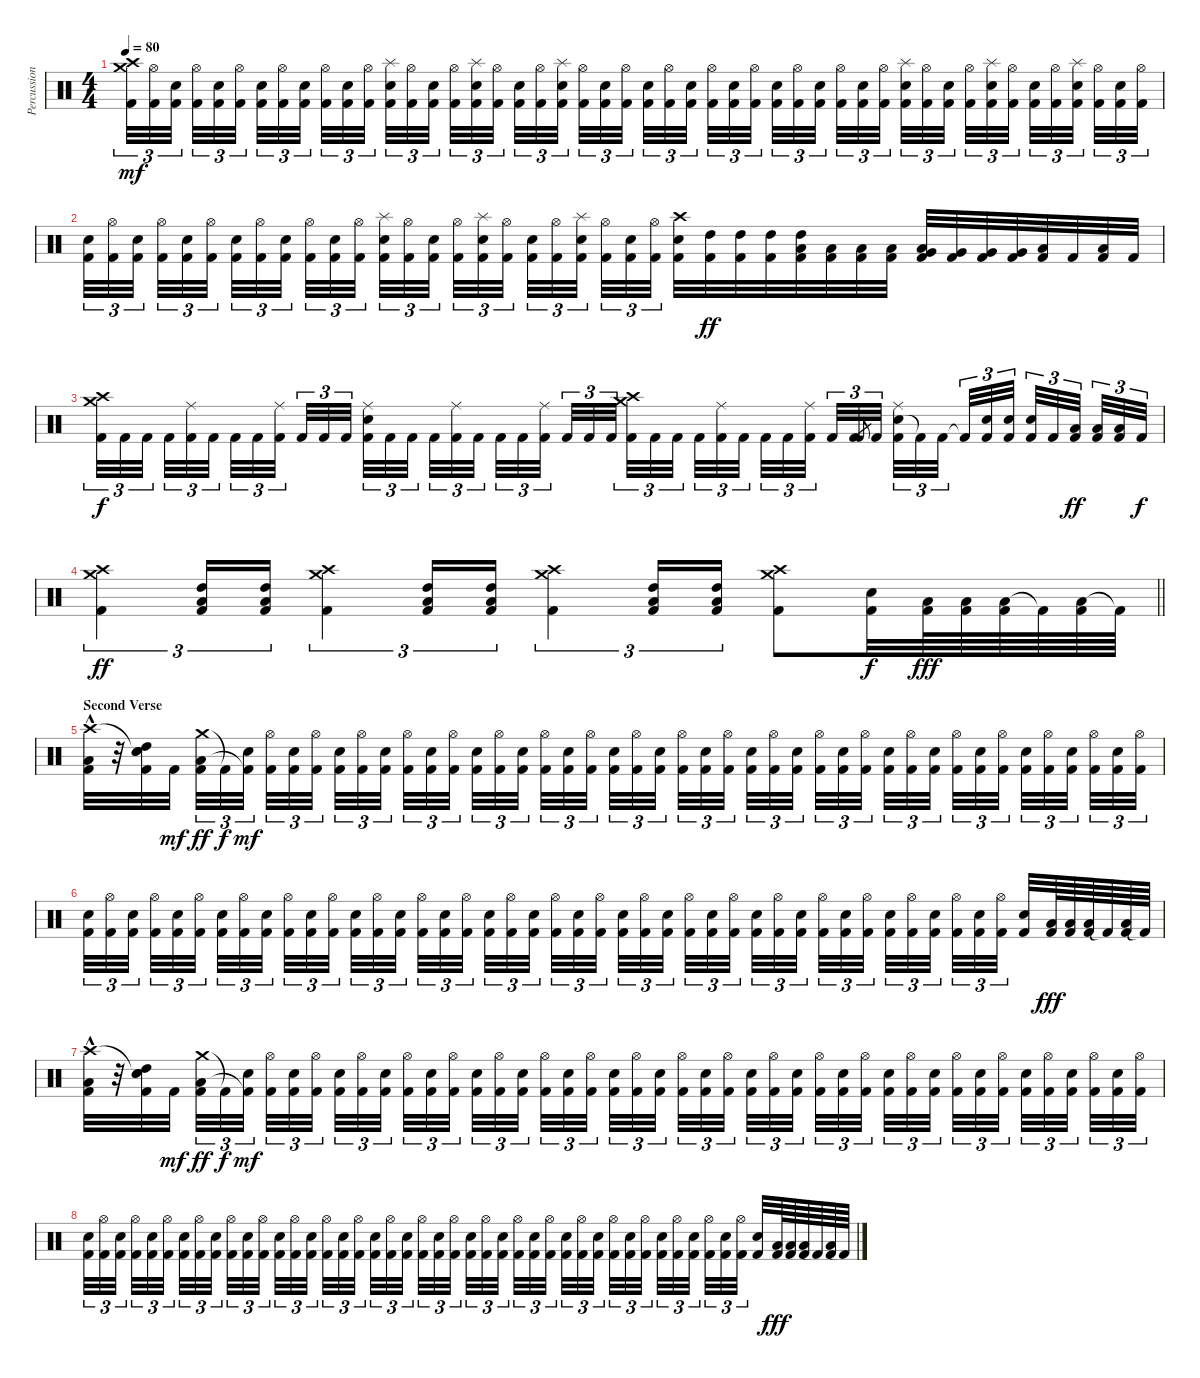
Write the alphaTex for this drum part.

\track ("Percussion" "Percussion") {instrument percussion}
\staff {score}
\articulation defaults
\ts (4 4)
\tempo 80
\clef neutral
\ks c
("Crash medium (hit)" "Crash high (hit)" "Kick (hit) 2").32{tu (3 2) dy mf} ("Hi-Hat (open)" "Kick (hit) 2").32{tu (3 2)} ("Snare (hit) 2" "Kick (hit) 2").32{tu (3 2) beam splitsecondary} ("Hi-Hat (open)" "Kick (hit) 2").32{tu (3 2)} ("Snare (hit) 2" "Kick (hit) 2").32{tu (3 2)} ("Hi-Hat (open)" "Kick (hit) 2").32{tu (3 2) beam splitsecondary} ("Snare (hit) 2" "Kick (hit) 2").32{tu (3 2)} ("Hi-Hat (open)" "Kick (hit) 2").32{tu (3 2)} ("Snare (hit) 2" "Kick (hit) 2").32{tu (3 2) beam splitsecondary} ("Hi-Hat (open)" "Kick (hit) 2").32{tu (3 2)} ("Snare (hit) 2" "Kick (hit) 2").32{tu (3 2)} ("Hi-Hat (open)" "Kick (hit) 2").32{tu (3 2)} ("Splash (hit)" "Snare (hit) 2" "Kick (hit) 2").32{tu (3 2)} ("Hi-Hat (open)" "Kick (hit) 2").32{tu (3 2)} ("Snare (hit) 2" "Kick (hit) 2").32{tu (3 2) beam splitsecondary} ("Hi-Hat (open)" "Kick (hit) 2").32{tu (3 2)} ("Splash (hit)" "Snare (hit) 2" "Kick (hit) 2").32{tu (3 2)} ("Hi-Hat (open)" "Kick (hit) 2").32{tu (3 2) beam splitsecondary} ("Snare (hit) 2" "Kick (hit) 2").32{tu (3 2)} ("Hi-Hat (open)" "Kick (hit) 2").32{tu (3 2)} ("Splash (hit)" "Snare (hit) 2" "Kick (hit) 2").32{tu (3 2) beam splitsecondary} ("Hi-Hat (open)" "Kick (hit) 2").32{tu (3 2)} ("Snare (hit) 2" "Kick (hit) 2").32{tu (3 2)} ("Hi-Hat (open)" "Kick (hit) 2").32{tu (3 2)} ("Snare (hit) 2" "Kick (hit) 2").32{tu (3 2)} ("Hi-Hat (open)" "Kick (hit) 2").32{tu (3 2)} ("Snare (hit) 2" "Kick (hit) 2").32{tu (3 2) beam splitsecondary} ("Hi-Hat (open)" "Kick (hit) 2").32{tu (3 2)} ("Snare (hit) 2" "Kick (hit) 2").32{tu (3 2)} ("Hi-Hat (open)" "Kick (hit) 2").32{tu (3 2) beam splitsecondary} ("Snare (hit) 2" "Kick (hit) 2").32{tu (3 2)} ("Hi-Hat (open)" "Kick (hit) 2").32{tu (3 2)} ("Snare (hit) 2" "Kick (hit) 2").32{tu (3 2) beam splitsecondary} ("Hi-Hat (open)" "Kick (hit) 2").32{tu (3 2)} ("Snare (hit) 2" "Kick (hit) 2").32{tu (3 2)} ("Hi-Hat (open)" "Kick (hit) 2").32{tu (3 2)} ("Splash (hit)" "Snare (hit) 2" "Kick (hit) 2").32{tu (3 2)} ("Hi-Hat (open)" "Kick (hit) 2").32{tu (3 2)} ("Snare (hit) 2" "Kick (hit) 2").32{tu (3 2) beam splitsecondary} ("Hi-Hat (open)" "Kick (hit) 2").32{tu (3 2)} ("Splash (hit)" "Snare (hit) 2" "Kick (hit) 2").32{tu (3 2)} ("Hi-Hat (open)" "Kick (hit) 2").32{tu (3 2) beam splitsecondary} ("Snare (hit) 2" "Kick (hit) 2").32{tu (3 2)} ("Hi-Hat (open)" "Kick (hit) 2").32{tu (3 2)} ("Splash (hit)" "Snare (hit) 2" "Kick (hit) 2").32{tu (3 2) beam splitsecondary} ("Hi-Hat (open)" "Kick (hit) 2").32{tu (3 2)} ("Snare (hit) 2" "Kick (hit) 2").32{tu (3 2)} ("Hi-Hat (open)" "Kick (hit) 2").32{tu (3 2)} |
("Snare (hit) 2" "Kick (hit) 2").32{tu (3 2)} ("Hi-Hat (open)" "Kick (hit) 2").32{tu (3 2)} ("Snare (hit) 2" "Kick (hit) 2").32{tu (3 2) beam splitsecondary} ("Hi-Hat (open)" "Kick (hit) 2").32{tu (3 2)} ("Snare (hit) 2" "Kick (hit) 2").32{tu (3 2)} ("Hi-Hat (open)" "Kick (hit) 2").32{tu (3 2) beam splitsecondary} ("Snare (hit) 2" "Kick (hit) 2").32{tu (3 2)} ("Hi-Hat (open)" "Kick (hit) 2").32{tu (3 2)} ("Snare (hit) 2" "Kick (hit) 2").32{tu (3 2) beam splitsecondary} ("Hi-Hat (open)" "Kick (hit) 2").32{tu (3 2)} ("Snare (hit) 2" "Kick (hit) 2").32{tu (3 2)} ("Hi-Hat (open)" "Kick (hit) 2").32{tu (3 2)} ("Splash (hit)" "Snare (hit) 2" "Kick (hit) 2").32{tu (3 2)} ("Hi-Hat (open)" "Kick (hit) 2").32{tu (3 2)} ("Snare (hit) 2" "Kick (hit) 2").32{tu (3 2) beam splitsecondary} ("Hi-Hat (open)" "Kick (hit) 2").32{tu (3 2)} ("Splash (hit)" "Snare (hit) 2" "Kick (hit) 2").32{tu (3 2)} ("Hi-Hat (open)" "Kick (hit) 2").32{tu (3 2) beam splitsecondary} ("Snare (hit) 2" "Kick (hit) 2").32{tu (3 2)} ("Hi-Hat (open)" "Kick (hit) 2").32{tu (3 2)} ("Splash (hit)" "Snare (hit) 2" "Kick (hit) 2").32{tu (3 2) beam splitsecondary} ("Hi-Hat (open)" "Kick (hit) 2").32{tu (3 2)} ("Snare (hit) 2" "Kick (hit) 2").32{tu (3 2)} ("Hi-Hat (open)" "Kick (hit) 2").32{tu (3 2)} ("Crash high (hit)" "Snare (hit) 2" "Kick (hit) 2").32 ("High Tom (hit)" "Kick (hit) 2").32{dy ff} ("High Tom (hit)" "Kick (hit) 2").32 ("High Tom (hit)" "Kick (hit) 2").32 ("High Tom (hit)" "Low Tom (hit)" "Kick (hit) 2").32 ("Low Tom (hit)" "Kick (hit) 2").32 ("Low Tom (hit)" "Kick (hit) 2").32 ("Low Tom (hit)" "Kick (hit) 2").32 ("Low Tom (hit)" "Very Low Tom (hit)" "Kick (hit) 2").32 ("Very Low Tom (hit)" "Kick (hit) 2").32 ("Very Low Tom (hit)" "Kick (hit) 2").32 ("Very Low Tom (hit)" "Kick (hit) 2").32 ("Low Floor Tom (hit)" "Kick (hit) 2").32 "Kick (hit) 2".32 ("Low Floor Tom (hit)" "Kick (hit) 2").32 "Kick (hit) 2".32 |
("Crash medium (hit)" "Crash high (hit)" "Kick (hit) 2").32{tu (3 2) dy f} "Kick (hit) 2".32{tu (3 2)} "Kick (hit) 2".32{tu (3 2) beam splitsecondary} "Kick (hit) 2".32{tu (3 2)} ("Ride (middle)" "Kick (hit) 2").32{tu (3 2)} "Kick (hit) 2".32{tu (3 2) beam splitsecondary} "Kick (hit) 2".32{tu (3 2)} "Kick (hit) 2".32{tu (3 2)} ("Ride (middle)" "Kick (hit) 2").32{tu (3 2) beam splitsecondary} "Kick (hit) 2".32{tu (3 2)} "Kick (hit) 2".32{tu (3 2)} "Kick (hit) 2".32{tu (3 2)} ("Snare (hit) 2" "Ride (middle)" "Kick (hit) 2").32{tu (3 2)} "Kick (hit) 2".32{tu (3 2)} "Kick (hit) 2".32{tu (3 2) beam splitsecondary} "Kick (hit) 2".32{tu (3 2)} ("Ride (middle)" "Kick (hit) 2").32{tu (3 2)} "Kick (hit) 2".32{tu (3 2) beam splitsecondary} "Kick (hit) 2".32{tu (3 2)} "Kick (hit) 2".32{tu (3 2)} ("Ride (middle)" "Kick (hit) 2").32{tu (3 2) beam splitsecondary} "Kick (hit) 2".32{tu (3 2)} "Kick (hit) 2".32{tu (3 2)} "Kick (hit) 2".32{tu (3 2)} ("Crash medium (hit)" "Crash high (hit)" "Kick (hit) 2").32{tu (3 2)} "Kick (hit) 2".32{tu (3 2)} "Kick (hit) 2".32{tu (3 2) beam splitsecondary} "Kick (hit) 2".32{tu (3 2)} ("Ride (middle)" "Kick (hit) 2").32{tu (3 2)} "Kick (hit) 2".32{tu (3 2) beam splitsecondary} "Kick (hit) 2".32{tu (3 2)} "Kick (hit) 2".32{tu (3 2)} ("Ride (middle)" "Kick (hit) 2").32{tu (3 2) beam splitsecondary} "Kick (hit) 2".32{tu (3 2)} "Kick (hit) 2".32{tu (3 2)} "Kick (hit) 2".8{gr} "Kick (hit) 2".32{tu (3 2)} ("Snare (hit) 2" "Ride (middle)" "Kick (hit) 2").32{tu (3 2)} "Kick (hit) 2"{t}.32{tu (3 2)} "Kick (hit) 2".32{tu (3 2) beam splitsecondary} "Kick (hit) 2"{t}.32{tu (3 2)} ("Snare (hit) 2" "Kick (hit) 2").32{tu (3 2)} ("Snare (hit) 2" "Kick (hit) 2").32{tu (3 2) beam splitsecondary} ("Snare (hit) 2" "Kick (hit) 2").32{tu (3 2)} "Kick (hit) 2".32{tu (3 2)} ("Low Tom (hit)" "Kick (hit) 2").32{tu (3 2) dy ff beam splitsecondary} ("Low Tom (hit)" "Kick (hit) 2").32{tu (3 2)} ("Low Tom (hit)" "Kick (hit) 2").32{tu (3 2)} "Kick (hit) 2".32{tu (3 2) dy f} |
\barLineRight lightlight
("Crash medium (hit)" "Crash high (hit)" "Kick (hit) 2").4{tu (3 2) dy ff} ("High Tom (hit)" "Low Tom (hit)" "Kick (hit) 2").16{tu (3 2)} ("High Tom (hit)" "Low Tom (hit)" "Kick (hit) 2").16{tu (3 2)} ("Crash medium (hit)" "Crash high (hit)" "Kick (hit) 2").4{tu (3 2)} ("High Tom (hit)" "Low Tom (hit)" "Kick (hit) 2").16{tu (3 2)} ("High Tom (hit)" "Low Tom (hit)" "Kick (hit) 2").16{tu (3 2)} ("Crash medium (hit)" "Crash high (hit)" "Kick (hit) 2").4{tu (3 2)} ("High Tom (hit)" "Low Tom (hit)" "Kick (hit) 2").16{tu (3 2)} ("High Tom (hit)" "Low Tom (hit)" "Kick (hit) 2").16{tu (3 2)} ("Crash medium (hit)" "Crash high (hit)" "Kick (hit) 2").8 ("Snare (hit) 2" "Kick (hit) 2").32{dy f} ("Low Floor Tom (hit)" "Kick (hit) 2").64{dy fff} ("Low Floor Tom (hit)" "Kick (hit) 2").64 ("Low Floor Tom (hit)" "Kick (hit) 2").64 "Kick (hit) 2"{t}.64 ("Low Tom (hit)" "Kick (hit) 2").64 "Kick (hit) 2"{t}.64 |
\section ("" "Second Verse")
("Crash high (hit)" "Low Tom (hit)"{hac} "Kick (hit) 2").32 r.32 ("Snare (hit)"{t} "Snare (hit) 2" "High Tom (hit)" "Kick (hit) 2").32 "Kick (hit) 2".32{dy mf beam splitsecondary} ("Crash medium (hit)" "Low Tom (hit)" "Kick (hit) 2").32{tu (3 2) dy ff} "Kick (hit) 2"{t}.32{tu (3 2) dy f} ("Snare (hit) 2" "Kick (hit) 2"{t}).32{tu (3 2) dy mf beam splitsecondary} ("Hi-Hat (open)" "Kick (hit) 2").32{tu (3 2)} ("Snare (hit) 2" "Kick (hit) 2").32{tu (3 2)} ("Hi-Hat (open)" "Kick (hit) 2").32{tu (3 2)} ("Snare (hit) 2" "Kick (hit) 2").32{tu (3 2)} ("Hi-Hat (open)" "Kick (hit) 2").32{tu (3 2)} ("Snare (hit) 2" "Kick (hit) 2").32{tu (3 2) beam splitsecondary} ("Hi-Hat (open)" "Kick (hit) 2").32{tu (3 2)} ("Snare (hit) 2" "Kick (hit) 2").32{tu (3 2)} ("Hi-Hat (open)" "Kick (hit) 2").32{tu (3 2) beam splitsecondary} ("Snare (hit) 2" "Kick (hit) 2").32{tu (3 2)} ("Hi-Hat (open)" "Kick (hit) 2").32{tu (3 2)} ("Snare (hit) 2" "Kick (hit) 2").32{tu (3 2) beam splitsecondary} ("Hi-Hat (open)" "Kick (hit) 2").32{tu (3 2)} ("Snare (hit) 2" "Kick (hit) 2").32{tu (3 2)} ("Hi-Hat (open)" "Kick (hit) 2").32{tu (3 2)} ("Snare (hit) 2" "Kick (hit) 2").32{tu (3 2)} ("Hi-Hat (open)" "Kick (hit) 2").32{tu (3 2)} ("Snare (hit) 2" "Kick (hit) 2").32{tu (3 2) beam splitsecondary} ("Hi-Hat (open)" "Kick (hit) 2").32{tu (3 2)} ("Snare (hit) 2" "Kick (hit) 2").32{tu (3 2)} ("Hi-Hat (open)" "Kick (hit) 2").32{tu (3 2) beam splitsecondary} ("Snare (hit) 2" "Kick (hit) 2").32{tu (3 2)} ("Hi-Hat (open)" "Kick (hit) 2").32{tu (3 2)} ("Snare (hit) 2" "Kick (hit) 2").32{tu (3 2) beam splitsecondary} ("Hi-Hat (open)" "Kick (hit) 2").32{tu (3 2)} ("Snare (hit) 2" "Kick (hit) 2").32{tu (3 2)} ("Hi-Hat (open)" "Kick (hit) 2").32{tu (3 2)} ("Snare (hit) 2" "Kick (hit) 2").32{tu (3 2)} ("Hi-Hat (open)" "Kick (hit) 2").32{tu (3 2)} ("Snare (hit) 2" "Kick (hit) 2").32{tu (3 2) beam splitsecondary} ("Hi-Hat (open)" "Kick (hit) 2").32{tu (3 2)} ("Snare (hit) 2" "Kick (hit) 2").32{tu (3 2)} ("Hi-Hat (open)" "Kick (hit) 2").32{tu (3 2) beam splitsecondary} ("Snare (hit) 2" "Kick (hit) 2").32{tu (3 2)} ("Hi-Hat (open)" "Kick (hit) 2").32{tu (3 2)} ("Snare (hit) 2" "Kick (hit) 2").32{tu (3 2) beam splitsecondary} ("Hi-Hat (open)" "Kick (hit) 2").32{tu (3 2)} ("Snare (hit) 2" "Kick (hit) 2").32{tu (3 2)} ("Hi-Hat (open)" "Kick (hit) 2").32{tu (3 2)} |
("Snare (hit) 2" "Kick (hit) 2").32{tu (3 2)} ("Hi-Hat (open)" "Kick (hit) 2").32{tu (3 2)} ("Snare (hit) 2" "Kick (hit) 2").32{tu (3 2) beam splitsecondary} ("Hi-Hat (open)" "Kick (hit) 2").32{tu (3 2)} ("Snare (hit) 2" "Kick (hit) 2").32{tu (3 2)} ("Hi-Hat (open)" "Kick (hit) 2").32{tu (3 2) beam splitsecondary} ("Snare (hit) 2" "Kick (hit) 2").32{tu (3 2)} ("Hi-Hat (open)" "Kick (hit) 2").32{tu (3 2)} ("Snare (hit) 2" "Kick (hit) 2").32{tu (3 2) beam splitsecondary} ("Hi-Hat (open)" "Kick (hit) 2").32{tu (3 2)} ("Snare (hit) 2" "Kick (hit) 2").32{tu (3 2)} ("Hi-Hat (open)" "Kick (hit) 2").32{tu (3 2)} ("Snare (hit) 2" "Kick (hit) 2").32{tu (3 2)} ("Hi-Hat (open)" "Kick (hit) 2").32{tu (3 2)} ("Snare (hit) 2" "Kick (hit) 2").32{tu (3 2) beam splitsecondary} ("Hi-Hat (open)" "Kick (hit) 2").32{tu (3 2)} ("Snare (hit) 2" "Kick (hit) 2").32{tu (3 2)} ("Hi-Hat (open)" "Kick (hit) 2").32{tu (3 2) beam splitsecondary} ("Snare (hit) 2" "Kick (hit) 2").32{tu (3 2)} ("Hi-Hat (open)" "Kick (hit) 2").32{tu (3 2)} ("Snare (hit) 2" "Kick (hit) 2").32{tu (3 2) beam splitsecondary} ("Hi-Hat (open)" "Kick (hit) 2").32{tu (3 2)} ("Snare (hit) 2" "Kick (hit) 2").32{tu (3 2)} ("Hi-Hat (open)" "Kick (hit) 2").32{tu (3 2)} ("Snare (hit) 2" "Kick (hit) 2").32{tu (3 2)} ("Hi-Hat (open)" "Kick (hit) 2").32{tu (3 2)} ("Snare (hit) 2" "Kick (hit) 2").32{tu (3 2) beam splitsecondary} ("Hi-Hat (open)" "Kick (hit) 2").32{tu (3 2)} ("Snare (hit) 2" "Kick (hit) 2").32{tu (3 2)} ("Hi-Hat (open)" "Kick (hit) 2").32{tu (3 2) beam splitsecondary} ("Snare (hit) 2" "Kick (hit) 2").32{tu (3 2)} ("Hi-Hat (open)" "Kick (hit) 2").32{tu (3 2)} ("Snare (hit) 2" "Kick (hit) 2").32{tu (3 2) beam splitsecondary} ("Hi-Hat (open)" "Kick (hit) 2").32{tu (3 2)} ("Snare (hit) 2" "Kick (hit) 2").32{tu (3 2)} ("Hi-Hat (open)" "Kick (hit) 2").32{tu (3 2)} ("Snare (hit) 2" "Kick (hit) 2").32{tu (3 2)} ("Hi-Hat (open)" "Kick (hit) 2").32{tu (3 2)} ("Snare (hit) 2" "Kick (hit) 2").32{tu (3 2) beam splitsecondary} ("Hi-Hat (open)" "Kick (hit) 2").32{tu (3 2)} ("Snare (hit) 2" "Kick (hit) 2").32{tu (3 2)} ("Hi-Hat (open)" "Kick (hit) 2").32{tu (3 2) beam splitsecondary} ("Snare (hit) 2" "Kick (hit) 2").32 ("Low Floor Tom (hit)" "Kick (hit) 2").64{dy fff} ("Low Floor Tom (hit)" "Kick (hit) 2").64 ("Low Floor Tom (hit)" "Kick (hit) 2").64 "Kick (hit) 2"{t}.64 ("Low Tom (hit)" "Kick (hit) 2").64 "Kick (hit) 2"{t}.64 |
("Crash high (hit)" "Low Tom (hit)"{hac} "Kick (hit) 2").32 r.32 ("Snare (hit)"{t} "Snare (hit) 2" "High Tom (hit)" "Kick (hit) 2").32 "Kick (hit) 2".32{dy mf beam splitsecondary} ("Crash medium (hit)" "Low Tom (hit)" "Kick (hit) 2").32{tu (3 2) dy ff} "Kick (hit) 2"{t}.32{tu (3 2) dy f} ("Snare (hit) 2" "Kick (hit) 2"{t}).32{tu (3 2) dy mf beam splitsecondary} ("Hi-Hat (open)" "Kick (hit) 2").32{tu (3 2)} ("Snare (hit) 2" "Kick (hit) 2").32{tu (3 2)} ("Hi-Hat (open)" "Kick (hit) 2").32{tu (3 2)} ("Snare (hit) 2" "Kick (hit) 2").32{tu (3 2)} ("Hi-Hat (open)" "Kick (hit) 2").32{tu (3 2)} ("Snare (hit) 2" "Kick (hit) 2").32{tu (3 2) beam splitsecondary} ("Hi-Hat (open)" "Kick (hit) 2").32{tu (3 2)} ("Snare (hit) 2" "Kick (hit) 2").32{tu (3 2)} ("Hi-Hat (open)" "Kick (hit) 2").32{tu (3 2) beam splitsecondary} ("Snare (hit) 2" "Kick (hit) 2").32{tu (3 2)} ("Hi-Hat (open)" "Kick (hit) 2").32{tu (3 2)} ("Snare (hit) 2" "Kick (hit) 2").32{tu (3 2) beam splitsecondary} ("Hi-Hat (open)" "Kick (hit) 2").32{tu (3 2)} ("Snare (hit) 2" "Kick (hit) 2").32{tu (3 2)} ("Hi-Hat (open)" "Kick (hit) 2").32{tu (3 2)} ("Snare (hit) 2" "Kick (hit) 2").32{tu (3 2)} ("Hi-Hat (open)" "Kick (hit) 2").32{tu (3 2)} ("Snare (hit) 2" "Kick (hit) 2").32{tu (3 2) beam splitsecondary} ("Hi-Hat (open)" "Kick (hit) 2").32{tu (3 2)} ("Snare (hit) 2" "Kick (hit) 2").32{tu (3 2)} ("Hi-Hat (open)" "Kick (hit) 2").32{tu (3 2) beam splitsecondary} ("Snare (hit) 2" "Kick (hit) 2").32{tu (3 2)} ("Hi-Hat (open)" "Kick (hit) 2").32{tu (3 2)} ("Snare (hit) 2" "Kick (hit) 2").32{tu (3 2) beam splitsecondary} ("Hi-Hat (open)" "Kick (hit) 2").32{tu (3 2)} ("Snare (hit) 2" "Kick (hit) 2").32{tu (3 2)} ("Hi-Hat (open)" "Kick (hit) 2").32{tu (3 2)} ("Snare (hit) 2" "Kick (hit) 2").32{tu (3 2)} ("Hi-Hat (open)" "Kick (hit) 2").32{tu (3 2)} ("Snare (hit) 2" "Kick (hit) 2").32{tu (3 2) beam splitsecondary} ("Hi-Hat (open)" "Kick (hit) 2").32{tu (3 2)} ("Snare (hit) 2" "Kick (hit) 2").32{tu (3 2)} ("Hi-Hat (open)" "Kick (hit) 2").32{tu (3 2) beam splitsecondary} ("Snare (hit) 2" "Kick (hit) 2").32{tu (3 2)} ("Hi-Hat (open)" "Kick (hit) 2").32{tu (3 2)} ("Snare (hit) 2" "Kick (hit) 2").32{tu (3 2) beam splitsecondary} ("Hi-Hat (open)" "Kick (hit) 2").32{tu (3 2)} ("Snare (hit) 2" "Kick (hit) 2").32{tu (3 2)} ("Hi-Hat (open)" "Kick (hit) 2").32{tu (3 2)} |
("Snare (hit) 2" "Kick (hit) 2").32{tu (3 2)} ("Hi-Hat (open)" "Kick (hit) 2").32{tu (3 2)} ("Snare (hit) 2" "Kick (hit) 2").32{tu (3 2) beam splitsecondary} ("Hi-Hat (open)" "Kick (hit) 2").32{tu (3 2)} ("Snare (hit) 2" "Kick (hit) 2").32{tu (3 2)} ("Hi-Hat (open)" "Kick (hit) 2").32{tu (3 2) beam splitsecondary} ("Snare (hit) 2" "Kick (hit) 2").32{tu (3 2)} ("Hi-Hat (open)" "Kick (hit) 2").32{tu (3 2)} ("Snare (hit) 2" "Kick (hit) 2").32{tu (3 2) beam splitsecondary} ("Hi-Hat (open)" "Kick (hit) 2").32{tu (3 2)} ("Snare (hit) 2" "Kick (hit) 2").32{tu (3 2)} ("Hi-Hat (open)" "Kick (hit) 2").32{tu (3 2)} ("Snare (hit) 2" "Kick (hit) 2").32{tu (3 2)} ("Hi-Hat (open)" "Kick (hit) 2").32{tu (3 2)} ("Snare (hit) 2" "Kick (hit) 2").32{tu (3 2) beam splitsecondary} ("Hi-Hat (open)" "Kick (hit) 2").32{tu (3 2)} ("Snare (hit) 2" "Kick (hit) 2").32{tu (3 2)} ("Hi-Hat (open)" "Kick (hit) 2").32{tu (3 2) beam splitsecondary} ("Snare (hit) 2" "Kick (hit) 2").32{tu (3 2)} ("Hi-Hat (open)" "Kick (hit) 2").32{tu (3 2)} ("Snare (hit) 2" "Kick (hit) 2").32{tu (3 2) beam splitsecondary} ("Hi-Hat (open)" "Kick (hit) 2").32{tu (3 2)} ("Snare (hit) 2" "Kick (hit) 2").32{tu (3 2)} ("Hi-Hat (open)" "Kick (hit) 2").32{tu (3 2)} ("Snare (hit) 2" "Kick (hit) 2").32{tu (3 2)} ("Hi-Hat (open)" "Kick (hit) 2").32{tu (3 2)} ("Snare (hit) 2" "Kick (hit) 2").32{tu (3 2) beam splitsecondary} ("Hi-Hat (open)" "Kick (hit) 2").32{tu (3 2)} ("Snare (hit) 2" "Kick (hit) 2").32{tu (3 2)} ("Hi-Hat (open)" "Kick (hit) 2").32{tu (3 2) beam splitsecondary} ("Snare (hit) 2" "Kick (hit) 2").32{tu (3 2)} ("Hi-Hat (open)" "Kick (hit) 2").32{tu (3 2)} ("Snare (hit) 2" "Kick (hit) 2").32{tu (3 2) beam splitsecondary} ("Hi-Hat (open)" "Kick (hit) 2").32{tu (3 2)} ("Snare (hit) 2" "Kick (hit) 2").32{tu (3 2)} ("Hi-Hat (open)" "Kick (hit) 2").32{tu (3 2)} ("Snare (hit) 2" "Kick (hit) 2").32{tu (3 2)} ("Hi-Hat (open)" "Kick (hit) 2").32{tu (3 2)} ("Snare (hit) 2" "Kick (hit) 2").32{tu (3 2) beam splitsecondary} ("Hi-Hat (open)" "Kick (hit) 2").32{tu (3 2)} ("Snare (hit) 2" "Kick (hit) 2").32{tu (3 2)} ("Hi-Hat (open)" "Kick (hit) 2").32{tu (3 2) beam splitsecondary} ("Snare (hit) 2" "Kick (hit) 2").32 ("Low Floor Tom (hit)" "Kick (hit) 2").64{dy fff} ("Low Floor Tom (hit)" "Kick (hit) 2").64 ("Low Floor Tom (hit)" "Kick (hit) 2").64 "Kick (hit) 2"{t}.64 ("Low Tom (hit)" "Kick (hit) 2").64 "Kick (hit) 2"{t}.64
